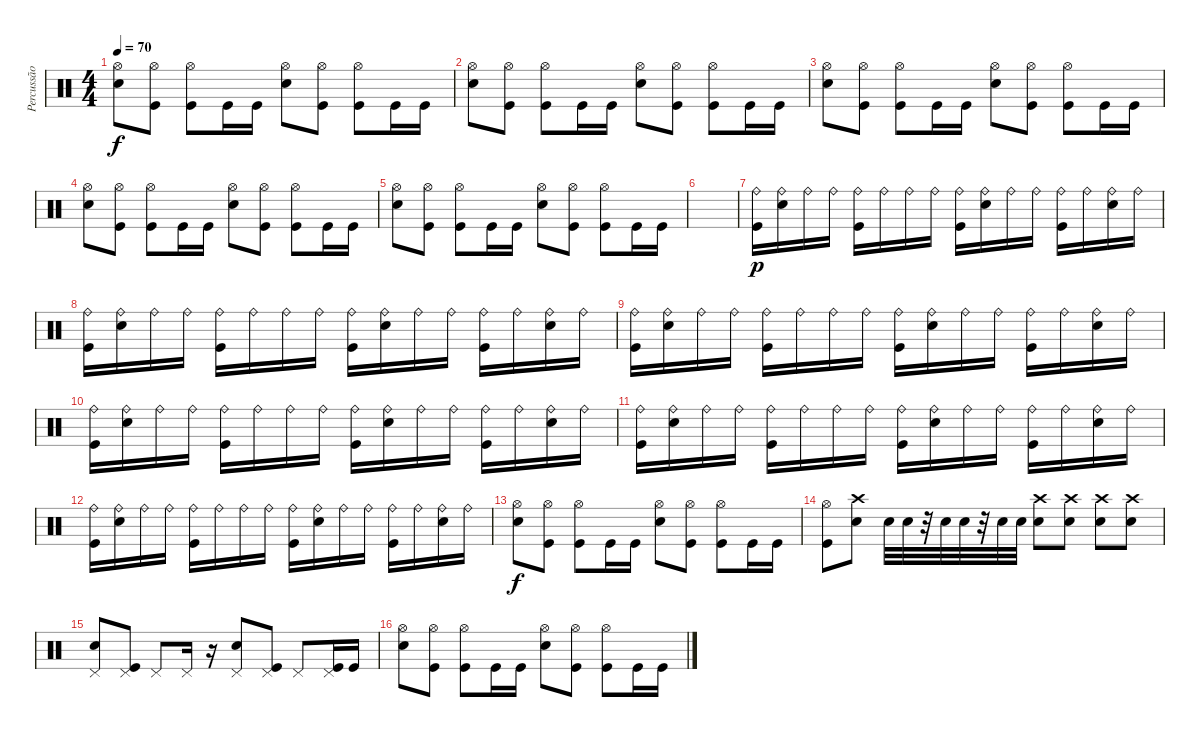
\track ("Percussão" "Percussão") {instrument percussion}
\staff {score}
\articulation defaults
\ts (4 4)
\tempo 70
\clef neutral
\ks c
("Hi-Hat (open)" "Electric Snare (hit)").8{dy f} ("Hi-Hat (open)" "Kick (hit)").8 ("Hi-Hat (open)" "Kick (hit)").8 "Kick (hit)".16 "Kick (hit)".16 ("Hi-Hat (open)" "Electric Snare (hit)").8 ("Hi-Hat (open)" "Kick (hit)").8 ("Hi-Hat (open)" "Kick (hit)").8 "Kick (hit)".16 "Kick (hit)".16 |
("Hi-Hat (open)" "Electric Snare (hit)").8 ("Hi-Hat (open)" "Kick (hit)").8 ("Hi-Hat (open)" "Kick (hit)").8 "Kick (hit)".16 "Kick (hit)".16 ("Hi-Hat (open)" "Electric Snare (hit)").8 ("Hi-Hat (open)" "Kick (hit)").8 ("Hi-Hat (open)" "Kick (hit)").8 "Kick (hit)".16 "Kick (hit)".16 |
("Hi-Hat (open)" "Electric Snare (hit)").8 ("Hi-Hat (open)" "Kick (hit)").8 ("Hi-Hat (open)" "Kick (hit)").8 "Kick (hit)".16 "Kick (hit)".16 ("Hi-Hat (open)" "Electric Snare (hit)").8 ("Hi-Hat (open)" "Kick (hit)").8 ("Hi-Hat (open)" "Kick (hit)").8 "Kick (hit)".16 "Kick (hit)".16 |
("Hi-Hat (open)" "Electric Snare (hit)").8 ("Hi-Hat (open)" "Kick (hit)").8 ("Hi-Hat (open)" "Kick (hit)").8 "Kick (hit)".16 "Kick (hit)".16 ("Hi-Hat (open)" "Electric Snare (hit)").8 ("Hi-Hat (open)" "Kick (hit)").8 ("Hi-Hat (open)" "Kick (hit)").8 "Kick (hit)".16 "Kick (hit)".16 |
("Hi-Hat (open)" "Electric Snare (hit)").8 ("Hi-Hat (open)" "Kick (hit)").8 ("Hi-Hat (open)" "Kick (hit)").8 "Kick (hit)".16 "Kick (hit)".16 ("Hi-Hat (open)" "Electric Snare (hit)").8 ("Hi-Hat (open)" "Kick (hit)").8 ("Hi-Hat (open)" "Kick (hit)").8 "Kick (hit)".16 "Kick (hit)".16 |
|
("Ride (bell)" "Kick (hit)").16{dy p} ("Ride (bell)" "Electric Snare (hit)").16 "Ride (bell)".16 "Ride (bell)".16 ("Ride (bell)" "Kick (hit)").16 "Ride (bell)".16 "Ride (bell)".16 "Ride (bell)".16 ("Ride (bell)" "Kick (hit)").16 ("Ride (bell)" "Electric Snare (hit)").16 "Ride (bell)".16 "Ride (bell)".16 ("Ride (bell)" "Kick (hit)").16 "Ride (bell)".16 ("Ride (bell)" "Electric Snare (hit)").16 "Ride (bell)".16 |
("Ride (bell)" "Kick (hit)").16 ("Ride (bell)" "Electric Snare (hit)").16 "Ride (bell)".16 "Ride (bell)".16 ("Ride (bell)" "Kick (hit)").16 "Ride (bell)".16 "Ride (bell)".16 "Ride (bell)".16 ("Ride (bell)" "Kick (hit)").16 ("Ride (bell)" "Electric Snare (hit)").16 "Ride (bell)".16 "Ride (bell)".16 ("Ride (bell)" "Kick (hit)").16 "Ride (bell)".16 ("Ride (bell)" "Electric Snare (hit)").16 "Ride (bell)".16 |
("Ride (bell)" "Kick (hit)").16 ("Ride (bell)" "Electric Snare (hit)").16 "Ride (bell)".16 "Ride (bell)".16 ("Ride (bell)" "Kick (hit)").16 "Ride (bell)".16 "Ride (bell)".16 "Ride (bell)".16 ("Ride (bell)" "Kick (hit)").16 ("Ride (bell)" "Electric Snare (hit)").16 "Ride (bell)".16 "Ride (bell)".16 ("Ride (bell)" "Kick (hit)").16 "Ride (bell)".16 ("Ride (bell)" "Electric Snare (hit)").16 "Ride (bell)".16 |
("Ride (bell)" "Kick (hit)").16 ("Ride (bell)" "Electric Snare (hit)").16 "Ride (bell)".16 "Ride (bell)".16 ("Ride (bell)" "Kick (hit)").16 "Ride (bell)".16 "Ride (bell)".16 "Ride (bell)".16 ("Ride (bell)" "Kick (hit)").16 ("Ride (bell)" "Electric Snare (hit)").16 "Ride (bell)".16 "Ride (bell)".16 ("Ride (bell)" "Kick (hit)").16 "Ride (bell)".16 ("Ride (bell)" "Electric Snare (hit)").16 "Ride (bell)".16 |
("Ride (bell)" "Kick (hit)").16 ("Ride (bell)" "Electric Snare (hit)").16 "Ride (bell)".16 "Ride (bell)".16 ("Ride (bell)" "Kick (hit)").16 "Ride (bell)".16 "Ride (bell)".16 "Ride (bell)".16 ("Ride (bell)" "Kick (hit)").16 ("Ride (bell)" "Electric Snare (hit)").16 "Ride (bell)".16 "Ride (bell)".16 ("Ride (bell)" "Kick (hit)").16 "Ride (bell)".16 ("Ride (bell)" "Electric Snare (hit)").16 "Ride (bell)".16 |
("Ride (bell)" "Kick (hit)").16 ("Ride (bell)" "Electric Snare (hit)").16 "Ride (bell)".16 "Ride (bell)".16 ("Ride (bell)" "Kick (hit)").16 "Ride (bell)".16 "Ride (bell)".16 "Ride (bell)".16 ("Ride (bell)" "Kick (hit)").16 ("Ride (bell)" "Electric Snare (hit)").16 "Ride (bell)".16 "Ride (bell)".16 ("Ride (bell)" "Kick (hit)").16 "Ride (bell)".16 ("Ride (bell)" "Electric Snare (hit)").16 "Ride (bell)".16 |
("Hi-Hat (open)" "Electric Snare (hit)").8{dy f} ("Hi-Hat (open)" "Kick (hit)").8 ("Hi-Hat (open)" "Kick (hit)").8 "Kick (hit)".16 "Kick (hit)".16 ("Hi-Hat (open)" "Electric Snare (hit)").8 ("Hi-Hat (open)" "Kick (hit)").8 ("Hi-Hat (open)" "Kick (hit)").8 "Kick (hit)".16 "Kick (hit)".16 |
("Hi-Hat (open)" "Kick (hit)").8 ("Crash high (hit)" "Electric Snare (hit)").8 "Electric Snare (hit)".32 "Electric Snare (hit)".32 r.32 "Electric Snare (hit)".32 "Electric Snare (hit)".32 r.32 "Electric Snare (hit)".32 "Electric Snare (hit)".32 ("Crash high (hit)" "Electric Snare (hit)").8 ("Crash high (hit)" "Electric Snare (hit)").8 ("Crash high (hit)" "Electric Snare (hit)").8 ("Crash high (hit)" "Electric Snare (hit)").8 |
("Pedal Hi-Hat (hit)" "Electric Snare (hit)").8 ("Pedal Hi-Hat (hit)" "Kick (hit)").8 "Pedal Hi-Hat (hit)".8 "Pedal Hi-Hat (hit)".16 r.16 ("Pedal Hi-Hat (hit)" "Electric Snare (hit)").8 ("Pedal Hi-Hat (hit)" "Kick (hit)").8 "Pedal Hi-Hat (hit)".8 ("Pedal Hi-Hat (hit)" "Kick (hit)").16 "Kick (hit)".16 |
("Hi-Hat (open)" "Electric Snare (hit)").8 ("Hi-Hat (open)" "Kick (hit)").8 ("Hi-Hat (open)" "Kick (hit)").8 "Kick (hit)".16 "Kick (hit)".16 ("Hi-Hat (open)" "Electric Snare (hit)").8 ("Hi-Hat (open)" "Kick (hit)").8 ("Hi-Hat (open)" "Kick (hit)").8 "Kick (hit)".16 "Kick (hit)".16
